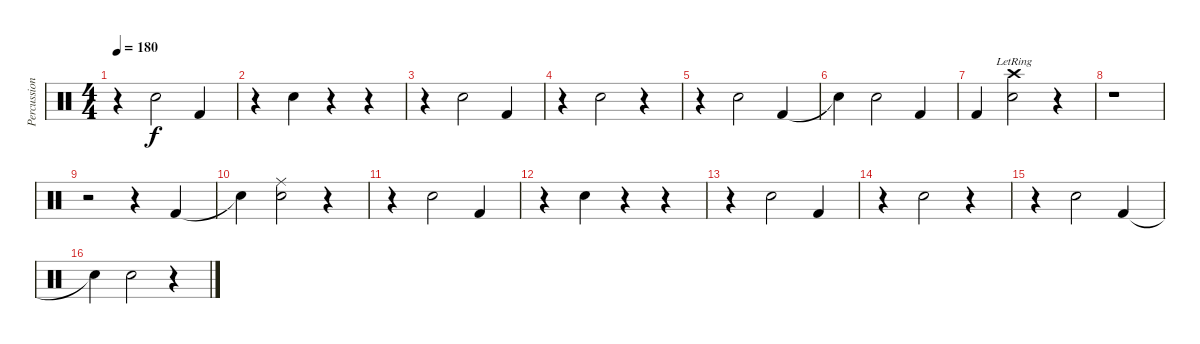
\track ("Percussion" "Percussion") {instrument percussion}
\staff {score}
\articulation defaults
\ts (4 4)
\tempo 180
\clef neutral
\ks c
r.4{dy f} "Electric Snare (hit)".2 "Kick (hit) 2".4 |
r.4 "Electric Snare (hit)".4 r.4 r.4 |
r.4 "Electric Snare (hit)".2 "Kick (hit) 2".4 |
r.4 "Electric Snare (hit)".2 r.4 |
r.4 "Electric Snare (hit)".2 "Kick (hit) 2".4 |
"Snare (hit)"{t}.4 "Electric Snare (hit)".2 "Kick (hit) 2".4 |
"Kick (hit) 2".4 ("Electric Snare (hit)" "Crash high (hit)"{lr}).2 r.4 |
r.1 |
r.2 r.4 "Kick (hit) 2".4 |
"Snare (hit)"{t}.4 ("Electric Snare (hit)" "Ride (middle)").2 r.4 |
r.4 "Electric Snare (hit)".2 "Kick (hit) 2".4 |
r.4 "Electric Snare (hit)".4 r.4 r.4 |
r.4 "Electric Snare (hit)".2 "Kick (hit) 2".4 |
r.4 "Electric Snare (hit)".2 r.4 |
r.4 "Electric Snare (hit)".2 "Kick (hit) 2".4 |
"Snare (hit)"{t}.4 "Electric Snare (hit)".2 r.4
